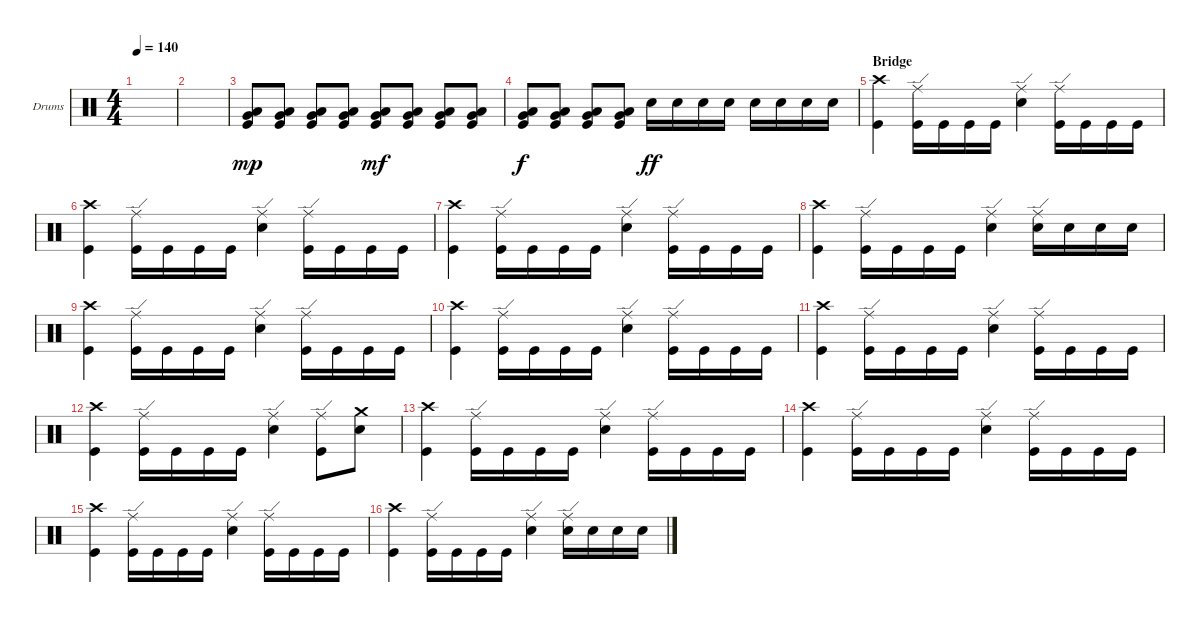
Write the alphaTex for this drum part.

\defaultSystemsLayout 4
\bracketExtendMode groupsimilarinstruments
\firstSystemTrackNameOrientation horizontal
\otherSystemsTrackNameOrientation horizontal
\track ("Drumkit" "Drums") {instrument percussion}
\staff {score}
\articulation defaults
\ts (4 4)
\tempo 140
\clef neutral
\ks c
|
|
("Low Tom (hit)" "Very Low Tom (hit)" "Kick (hit)").8{dy mp} ("Low Tom (hit)" "Very Low Tom (hit)" "Kick (hit)").8 ("Low Tom (hit)" "Very Low Tom (hit)" "Kick (hit)").8 ("Low Tom (hit)" "Very Low Tom (hit)" "Kick (hit)").8 ("Low Tom (hit)" "Very Low Tom (hit)" "Kick (hit)").8{dy mf} ("Low Tom (hit)" "Very Low Tom (hit)" "Kick (hit)").8 ("Low Tom (hit)" "Very Low Tom (hit)" "Kick (hit)").8 ("Low Tom (hit)" "Very Low Tom (hit)" "Kick (hit)").8 |
("Low Tom (hit)" "Very Low Tom (hit)" "Kick (hit)").8{dy f} ("Low Tom (hit)" "Very Low Tom (hit)" "Kick (hit)").8 ("Low Tom (hit)" "Very Low Tom (hit)" "Kick (hit)").8 ("Low Tom (hit)" "Very Low Tom (hit)" "Kick (hit)").8 "Snare (hit) 2".16{dy ff} "Snare (hit) 2".16 "Snare (hit) 2".16 "Snare (hit) 2".16 "Snare (hit) 2".16 "Snare (hit) 2".16 "Snare (hit) 2".16 "Snare (hit) 2".16 |
\section ("" "Bridge")
("Kick (hit)" "Crash high (hit)").4 ("Kick (hit)" "Ride (edge)").16 "Kick (hit)".16 "Kick (hit)".16 "Kick (hit)".16 ("Snare (hit) 2" "Ride (edge)").4 ("Kick (hit)" "Ride (edge)").16 "Kick (hit)".16 "Kick (hit)".16 "Kick (hit)".16 |
("Kick (hit)" "Crash high (hit)").4 ("Kick (hit)" "Ride (edge)").16 "Kick (hit)".16 "Kick (hit)".16 "Kick (hit)".16 ("Snare (hit) 2" "Ride (edge)").4 ("Kick (hit)" "Ride (edge)").16 "Kick (hit)".16 "Kick (hit)".16 "Kick (hit)".16 |
("Kick (hit)" "Crash high (hit)").4 ("Kick (hit)" "Ride (edge)").16 "Kick (hit)".16 "Kick (hit)".16 "Kick (hit)".16 ("Snare (hit) 2" "Ride (edge)").4 ("Kick (hit)" "Ride (edge)").16 "Kick (hit)".16 "Kick (hit)".16 "Kick (hit)".16 |
("Kick (hit)" "Crash high (hit)").4 ("Kick (hit)" "Ride (edge)").16 "Kick (hit)".16 "Kick (hit)".16 "Kick (hit)".16 ("Snare (hit) 2" "Ride (edge)").4 ("Ride (edge)" "Snare (hit) 2").16 "Snare (hit) 2".16 "Snare (hit) 2".16 "Snare (hit) 2".16 |
("Kick (hit)" "Crash high (hit)").4 ("Kick (hit)" "Ride (edge)").16 "Kick (hit)".16 "Kick (hit)".16 "Kick (hit)".16 ("Snare (hit) 2" "Ride (edge)").4 ("Kick (hit)" "Ride (edge)").16 "Kick (hit)".16 "Kick (hit)".16 "Kick (hit)".16 |
("Kick (hit)" "Crash high (hit)").4 ("Kick (hit)" "Ride (edge)").16 "Kick (hit)".16 "Kick (hit)".16 "Kick (hit)".16 ("Snare (hit) 2" "Ride (edge)").4 ("Kick (hit)" "Ride (edge)").16 "Kick (hit)".16 "Kick (hit)".16 "Kick (hit)".16 |
("Kick (hit)" "Crash high (hit)").4 ("Kick (hit)" "Ride (edge)").16 "Kick (hit)".16 "Kick (hit)".16 "Kick (hit)".16 ("Snare (hit) 2" "Ride (edge)").4 ("Kick (hit)" "Ride (edge)").16 "Kick (hit)".16 "Kick (hit)".16 "Kick (hit)".16 |
("Kick (hit)" "Crash high (hit)").4 ("Kick (hit)" "Ride (edge)").16 "Kick (hit)".16 "Kick (hit)".16 "Kick (hit)".16 ("Snare (hit) 2" "Ride (edge)").4 ("Kick (hit)" "Ride (edge)").8 ("Snare (hit) 2" "Crash medium (hit)").8 |
("Kick (hit)" "Crash high (hit)").4 ("Kick (hit)" "Ride (edge)").16 "Kick (hit)".16 "Kick (hit)".16 "Kick (hit)".16 ("Snare (hit) 2" "Ride (edge)").4 ("Kick (hit)" "Ride (edge)").16 "Kick (hit)".16 "Kick (hit)".16 "Kick (hit)".16 |
("Kick (hit)" "Crash high (hit)").4 ("Kick (hit)" "Ride (edge)").16 "Kick (hit)".16 "Kick (hit)".16 "Kick (hit)".16 ("Snare (hit) 2" "Ride (edge)").4 ("Kick (hit)" "Ride (edge)").16 "Kick (hit)".16 "Kick (hit)".16 "Kick (hit)".16 |
("Kick (hit)" "Crash high (hit)").4 ("Kick (hit)" "Ride (edge)").16 "Kick (hit)".16 "Kick (hit)".16 "Kick (hit)".16 ("Snare (hit) 2" "Ride (edge)").4 ("Kick (hit)" "Ride (edge)").16 "Kick (hit)".16 "Kick (hit)".16 "Kick (hit)".16 |
("Kick (hit)" "Crash high (hit)").4 ("Kick (hit)" "Ride (edge)").16 "Kick (hit)".16 "Kick (hit)".16 "Kick (hit)".16 ("Snare (hit) 2" "Ride (edge)").4 ("Ride (edge)" "Snare (hit) 2").16 "Snare (hit) 2".16 "Snare (hit) 2".16 "Snare (hit) 2".16
